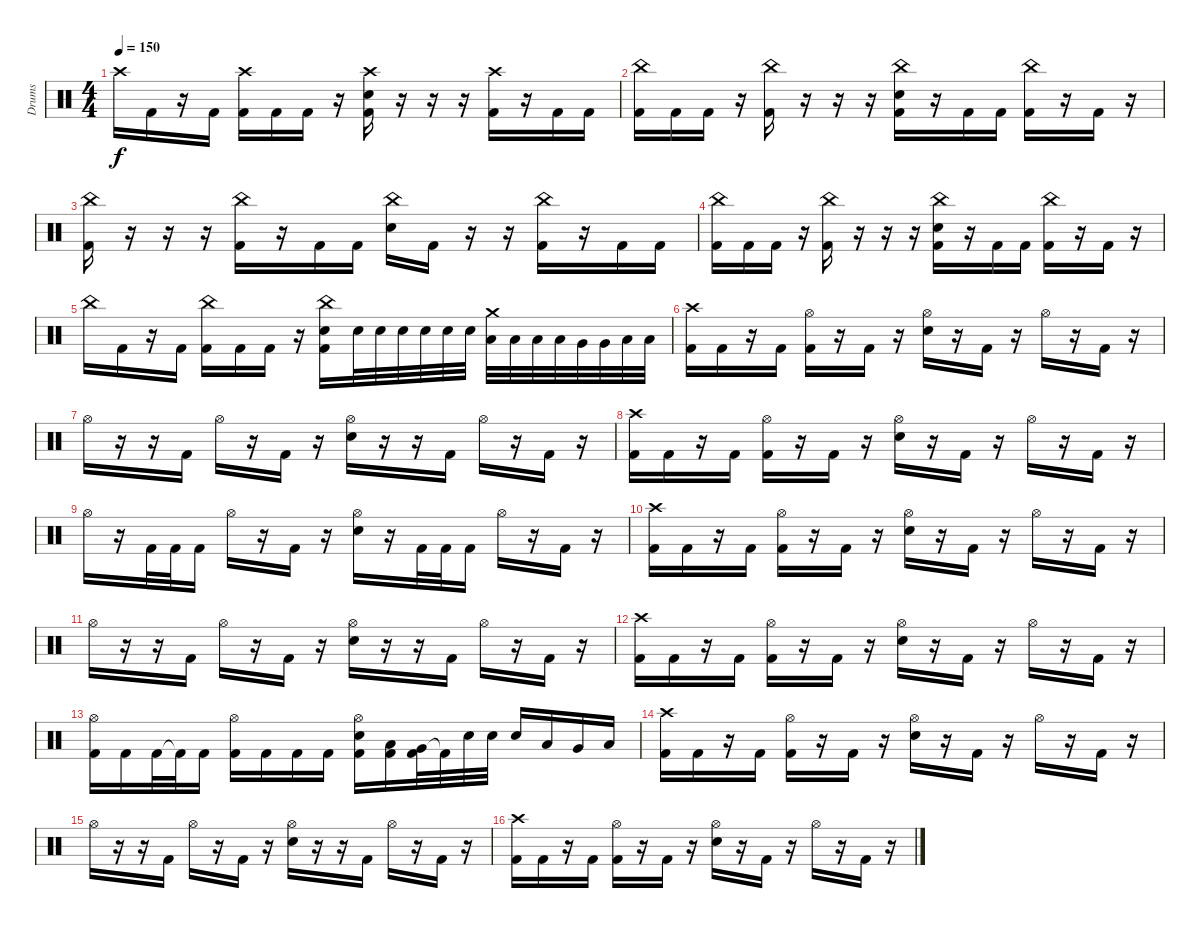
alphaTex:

\track ("Drums" "Drums") {instrument percussion}
\staff {score}
\articulation defaults
\ts (4 4)
\tempo 150
\clef neutral
\ks c "Crash high (hit)".16{dy f} "Kick (hit) 2".16
r.16 "Kick (hit) 2".16 ("Crash high (hit)" "Kick (hit) 2").16 "Kick (hit) 2".16 "Kick (hit) 2".16 r.16 ("Crash high (hit)" "Snare (hit) 2" "Kick (hit) 2").16 r.16 r.16 r.16 ("Crash high (hit)" "Kick (hit) 2").16 r.16 "Kick (hit) 2".16 "Kick (hit) 2".16 |
("China (hit)" "Kick (hit) 2").16 "Kick (hit) 2".16 "Kick (hit) 2".16 r.16 ("China (hit)" "Kick (hit) 2").16 r.16 r.16 r.16 ("China (hit)" "Snare (hit) 2" "Kick (hit) 2").16 r.16 "Kick (hit) 2".16 "Kick (hit) 2".16 ("China (hit)" "Kick (hit) 2").16 r.16 "Kick (hit) 2".16 r.16 |
("China (hit)" "Kick (hit) 2").16 r.16 r.16 r.16 ("China (hit)" "Kick (hit) 2").16 r.16 "Kick (hit) 2".16 "Kick (hit) 2".16 ("China (hit)" "Snare (hit) 2").16 "Kick (hit) 2".16 r.16 r.16 ("China (hit)" "Kick (hit) 2").16 r.16 "Kick (hit) 2".16 "Kick (hit) 2".16 |
("China (hit)" "Kick (hit) 2").16 "Kick (hit) 2".16 "Kick (hit) 2".16 r.16 ("China (hit)" "Kick (hit) 2").16 r.16 r.16 r.16 ("China (hit)" "Snare (hit) 2" "Kick (hit) 2").16 r.16 "Kick (hit) 2".16 "Kick (hit) 2".16 ("China (hit)" "Kick (hit) 2").16 r.16 "Kick (hit) 2".16 r.16 |
"China (hit)".16 "Kick (hit) 2".16 r.16 "Kick (hit) 2".16 ("China (hit)" "Kick (hit) 2").16 "Kick (hit) 2".16 "Kick (hit) 2".16 r.16 ("China (hit)" "Snare (hit) 2" "Kick (hit) 2").16 "Snare (hit) 2".32 "Snare (hit) 2".32 "Snare (hit) 2".32 "Snare (hit) 2".32 "Snare (hit) 2".32 "Snare (hit) 2".32 ("Crash medium (hit)" "Low Tom (hit)").32 "Low Tom (hit)".32 "Low Tom (hit)".32 "Low Tom (hit)".32 "Very Low Tom (hit)".32 "Very Low Tom (hit)".32 "Low Floor Tom (hit)".32 "Low Floor Tom (hit)".32 |
("Crash high (hit)" "Kick (hit) 2").16 "Kick (hit) 2".16 r.16 "Kick (hit) 2".16 ("Hi-Hat (open)" "Kick (hit) 2").16 r.16 "Kick (hit) 2".16 r.16 ("Hi-Hat (open)" "Snare (hit) 2").16 r.16 "Kick (hit) 2".16 r.16 "Hi-Hat (open)".16 r.16 "Kick (hit) 2".16 r.16 |
"Hi-Hat (open)".16 r.16 r.16 "Kick (hit) 2".16 "Hi-Hat (open)".16 r.16 "Kick (hit) 2".16 r.16 ("Hi-Hat (open)" "Snare (hit) 2").16 r.16 r.16 "Kick (hit) 2".16 "Hi-Hat (open)".16 r.16 "Kick (hit) 2".16 r.16 |
("Crash high (hit)" "Kick (hit) 2").16 "Kick (hit) 2".16 r.16 "Kick (hit) 2".16 ("Hi-Hat (open)" "Kick (hit) 2").16 r.16 "Kick (hit) 2".16 r.16 ("Hi-Hat (open)" "Snare (hit) 2").16 r.16 "Kick (hit) 2".16 r.16 "Hi-Hat (open)".16 r.16 "Kick (hit) 2".16 r.16 |
"Hi-Hat (open)".16 r.16 "Kick (hit) 2".32 "Kick (hit) 2".32 "Kick (hit) 2".16 "Hi-Hat (open)".16 r.16 "Kick (hit) 2".16 r.16 ("Hi-Hat (open)" "Snare (hit) 2").16 r.16 "Kick (hit) 2".32 "Kick (hit) 2".32 "Kick (hit) 2".16 "Hi-Hat (open)".16 r.16 "Kick (hit) 2".16 r.16 |
("Crash high (hit)" "Kick (hit) 2").16 "Kick (hit) 2".16 r.16 "Kick (hit) 2".16 ("Hi-Hat (open)" "Kick (hit) 2").16 r.16 "Kick (hit) 2".16 r.16 ("Hi-Hat (open)" "Snare (hit) 2").16 r.16 "Kick (hit) 2".16 r.16 "Hi-Hat (open)".16 r.16 "Kick (hit) 2".16 r.16 |
"Hi-Hat (open)".16 r.16 r.16 "Kick (hit) 2".16 "Hi-Hat (open)".16 r.16 "Kick (hit) 2".16 r.16 ("Hi-Hat (open)" "Snare (hit) 2").16 r.16 r.16 "Kick (hit) 2".16 "Hi-Hat (open)".16 r.16 "Kick (hit) 2".16 r.16 |
("Crash high (hit)" "Kick (hit) 2").16 "Kick (hit) 2".16 r.16 "Kick (hit) 2".16 ("Hi-Hat (open)" "Kick (hit) 2").16 r.16 "Kick (hit) 2".16 r.16 ("Hi-Hat (open)" "Snare (hit) 2").16 r.16 "Kick (hit) 2".16 r.16 "Hi-Hat (open)".16 r.16 "Kick (hit) 2".16 r.16 |
("Hi-Hat (open)" "Kick (hit) 2").16 "Kick (hit) 2".16 "Kick (hit) 2".32 "Kick (hit) 2"{t}.32 "Kick (hit) 2".16 ("Hi-Hat (open)" "Kick (hit) 2").16 "Kick (hit) 2".16 "Kick (hit) 2".16 "Kick (hit) 2".16 ("Hi-Hat (open)" "Snare (hit) 2" "Kick (hit) 2").16 ("Low Tom (hit)" "Kick (hit) 2").16 ("Very Low Tom (hit)" "Kick (hit) 2").32 "Kick (hit) 2"{t}.32 "Snare (hit) 2".32 "Snare (hit) 2".32 "Snare (hit) 2".16 "Low Tom (hit)".16 "Very Low Tom (hit)".16 "Low Floor Tom (hit)".16 |
("Crash high (hit)" "Kick (hit) 2").16 "Kick (hit) 2".16 r.16 "Kick (hit) 2".16 ("Hi-Hat (open)" "Kick (hit) 2").16 r.16 "Kick (hit) 2".16 r.16 ("Hi-Hat (open)" "Snare (hit) 2").16 r.16 "Kick (hit) 2".16 r.16 "Hi-Hat (open)".16 r.16 "Kick (hit) 2".16 r.16 |
"Hi-Hat (open)".16 r.16 r.16 "Kick (hit) 2".16 "Hi-Hat (open)".16 r.16 "Kick (hit) 2".16 r.16 ("Hi-Hat (open)" "Snare (hit) 2").16 r.16 r.16 "Kick (hit) 2".16 "Hi-Hat (open)".16 r.16 "Kick (hit) 2".16 r.16 |
("Crash high (hit)" "Kick (hit) 2").16 "Kick (hit) 2".16 r.16 "Kick (hit) 2".16 ("Hi-Hat (open)" "Kick (hit) 2").16 r.16 "Kick (hit) 2".16 r.16 ("Hi-Hat (open)" "Snare (hit) 2").16 r.16 "Kick (hit) 2".16 r.16 "Hi-Hat (open)".16 r.16 "Kick (hit) 2".16 r.16
